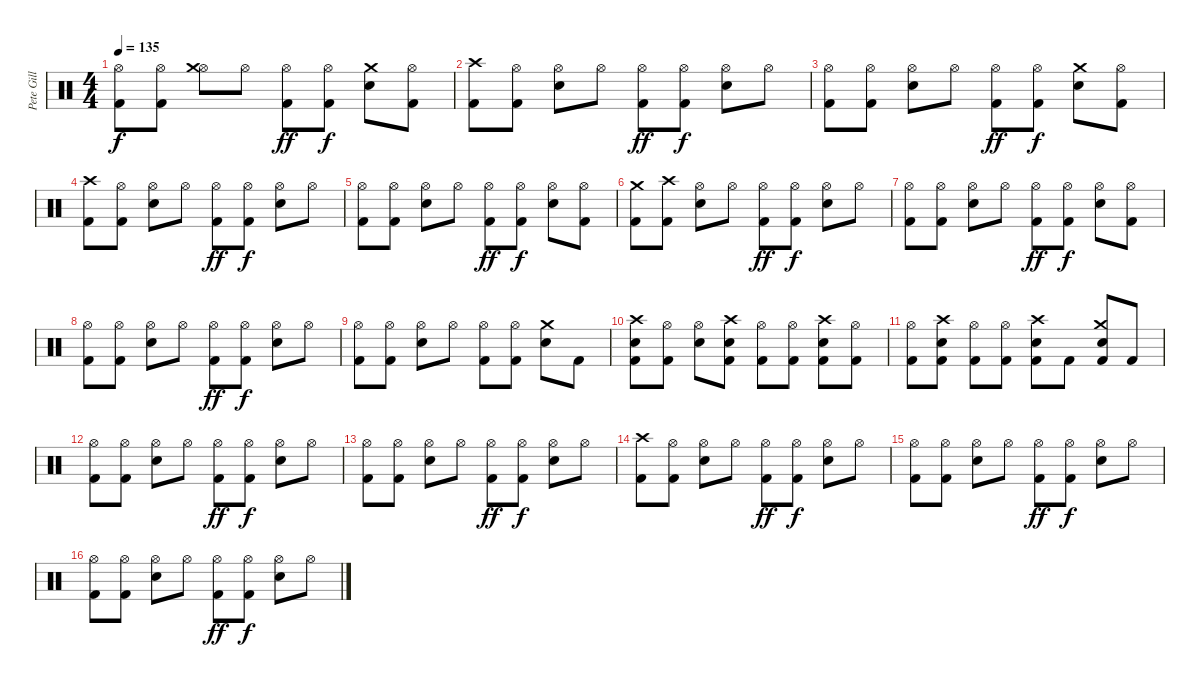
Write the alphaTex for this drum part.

\track ("Pete Gill" "Pete Gill") {instrument percussion}
\staff {score}
\articulation defaults
\ts (4 4)
\tempo 135
\clef neutral
\ks c
("Hi-Hat (open)" "Kick (hit) 2").8{dy f} ("Hi-Hat (open)" "Kick (hit) 2").8 ("Hi-Hat (open)" "Crash medium (hit)").8 "Hi-Hat (open)".8 ("Hi-Hat (open)" "Kick (hit) 2").8{dy ff} ("Hi-Hat (open)" "Kick (hit) 2").8{dy f} ("Crash medium (hit)" "Snare (hit) 2").8 ("Hi-Hat (open)" "Kick (hit) 2").8 |
("Kick (hit) 2" "Crash high (hit)").8 ("Hi-Hat (open)" "Kick (hit) 2").8 ("Hi-Hat (open)" "Snare (hit) 2").8 "Hi-Hat (open)".8 ("Hi-Hat (open)" "Kick (hit) 2").8{dy ff} ("Hi-Hat (open)" "Kick (hit) 2").8{dy f} ("Hi-Hat (open)" "Snare (hit) 2").8 "Hi-Hat (open)".8 |
("Hi-Hat (open)" "Kick (hit) 2").8 ("Hi-Hat (open)" "Kick (hit) 2").8 ("Hi-Hat (open)" "Snare (hit) 2").8 "Hi-Hat (open)".8 ("Hi-Hat (open)" "Kick (hit) 2").8{dy ff} ("Hi-Hat (open)" "Kick (hit) 2").8{dy f} ("Crash medium (hit)" "Snare (hit) 2").8 ("Hi-Hat (open)" "Kick (hit) 2").8 |
("Kick (hit) 2" "Crash high (hit)").8 ("Hi-Hat (open)" "Kick (hit) 2").8 ("Hi-Hat (open)" "Snare (hit) 2").8 "Hi-Hat (open)".8 ("Hi-Hat (open)" "Kick (hit) 2").8{dy ff} ("Hi-Hat (open)" "Kick (hit) 2").8{dy f} ("Hi-Hat (open)" "Snare (hit) 2").8 "Hi-Hat (open)".8 |
("Hi-Hat (open)" "Kick (hit) 2").8 ("Hi-Hat (open)" "Kick (hit) 2").8 ("Hi-Hat (open)" "Snare (hit) 2").8 "Hi-Hat (open)".8 ("Hi-Hat (open)" "Kick (hit) 2").8{dy ff} ("Hi-Hat (open)" "Kick (hit) 2").8{dy f} ("Hi-Hat (open)" "Snare (hit) 2").8 ("Hi-Hat (open)" "Kick (hit) 2").8 |
("Kick (hit) 2" "Crash medium (hit)").8 ("Crash high (hit)" "Kick (hit) 2").8 ("Hi-Hat (open)" "Snare (hit) 2").8 "Hi-Hat (open)".8 ("Hi-Hat (open)" "Kick (hit) 2").8{dy ff} ("Hi-Hat (open)" "Kick (hit) 2").8{dy f} ("Hi-Hat (open)" "Snare (hit) 2").8 "Hi-Hat (open)".8 |
("Hi-Hat (open)" "Kick (hit) 2").8 ("Hi-Hat (open)" "Kick (hit) 2").8 ("Hi-Hat (open)" "Snare (hit) 2").8 "Hi-Hat (open)".8 ("Hi-Hat (open)" "Kick (hit) 2").8{dy ff} ("Hi-Hat (open)" "Kick (hit) 2").8{dy f} ("Hi-Hat (open)" "Snare (hit) 2").8 ("Hi-Hat (open)" "Kick (hit) 2").8 |
("Kick (hit) 2" "Hi-Hat (open)").8 ("Hi-Hat (open)" "Kick (hit) 2").8 ("Hi-Hat (open)" "Snare (hit) 2").8 "Hi-Hat (open)".8 ("Hi-Hat (open)" "Kick (hit) 2").8{dy ff} ("Hi-Hat (open)" "Kick (hit) 2").8{dy f} ("Hi-Hat (open)" "Snare (hit) 2").8 "Hi-Hat (open)".8 |
("Hi-Hat (open)" "Kick (hit) 2").8 ("Hi-Hat (open)" "Kick (hit) 2").8 ("Hi-Hat (open)" "Snare (hit) 2").8 "Hi-Hat (open)".8 ("Hi-Hat (open)" "Kick (hit) 2").8 ("Hi-Hat (open)" "Kick (hit) 2").8 ("Crash medium (hit)" "Snare (hit) 2").8 "Kick (hit) 2".8 |
("Crash high (hit)" "Snare (hit) 2" "Kick (hit) 2").8 ("Hi-Hat (open)" "Kick (hit) 2").8 ("Hi-Hat (open)" "Snare (hit) 2").8 ("Crash high (hit)" "Snare (hit) 2" "Kick (hit) 2").8 ("Hi-Hat (open)" "Kick (hit) 2").8 ("Hi-Hat (open)" "Kick (hit) 2").8 ("Crash high (hit)" "Snare (hit) 2" "Kick (hit) 2").8 ("Hi-Hat (open)" "Kick (hit) 2").8 |
("Hi-Hat (open)" "Kick (hit) 2").8 ("Crash high (hit)" "Snare (hit) 2" "Kick (hit) 2").8 ("Hi-Hat (open)" "Kick (hit) 2").8 ("Hi-Hat (open)" "Kick (hit) 2").8 ("Crash high (hit)" "Snare (hit) 2" "Kick (hit) 2").8 "Kick (hit) 2".8 ("Snare (hit) 2" "Kick (hit) 2" "Crash medium (hit)").8 "Kick (hit) 2".8 |
("Hi-Hat (open)" "Kick (hit) 2").8 ("Hi-Hat (open)" "Kick (hit) 2").8 ("Hi-Hat (open)" "Snare (hit) 2").8 "Hi-Hat (open)".8 ("Hi-Hat (open)" "Kick (hit) 2").8{dy ff} ("Hi-Hat (open)" "Kick (hit) 2").8{dy f} ("Hi-Hat (open)" "Snare (hit) 2").8 "Hi-Hat (open)".8 |
("Hi-Hat (open)" "Kick (hit) 2").8 ("Hi-Hat (open)" "Kick (hit) 2").8 ("Hi-Hat (open)" "Snare (hit) 2").8 "Hi-Hat (open)".8 ("Hi-Hat (open)" "Kick (hit) 2").8{dy ff} ("Hi-Hat (open)" "Kick (hit) 2").8{dy f} ("Hi-Hat (open)" "Snare (hit) 2").8 "Hi-Hat (open)".8 |
("Crash high (hit)" "Kick (hit) 2").8 ("Hi-Hat (open)" "Kick (hit) 2").8 ("Hi-Hat (open)" "Snare (hit) 2").8 "Hi-Hat (open)".8 ("Hi-Hat (open)" "Kick (hit) 2").8{dy ff} ("Hi-Hat (open)" "Kick (hit) 2").8{dy f} ("Hi-Hat (open)" "Snare (hit) 2").8 "Hi-Hat (open)".8 |
("Hi-Hat (open)" "Kick (hit) 2").8 ("Hi-Hat (open)" "Kick (hit) 2").8 ("Hi-Hat (open)" "Snare (hit) 2").8 "Hi-Hat (open)".8 ("Hi-Hat (open)" "Kick (hit) 2").8{dy ff} ("Hi-Hat (open)" "Kick (hit) 2").8{dy f} ("Hi-Hat (open)" "Snare (hit) 2").8 "Hi-Hat (open)".8 |
("Hi-Hat (open)" "Kick (hit) 2").8 ("Hi-Hat (open)" "Kick (hit) 2").8 ("Hi-Hat (open)" "Snare (hit) 2").8 "Hi-Hat (open)".8 ("Hi-Hat (open)" "Kick (hit) 2").8{dy ff} ("Hi-Hat (open)" "Kick (hit) 2").8{dy f} ("Hi-Hat (open)" "Snare (hit) 2").8 "Hi-Hat (open)".8
